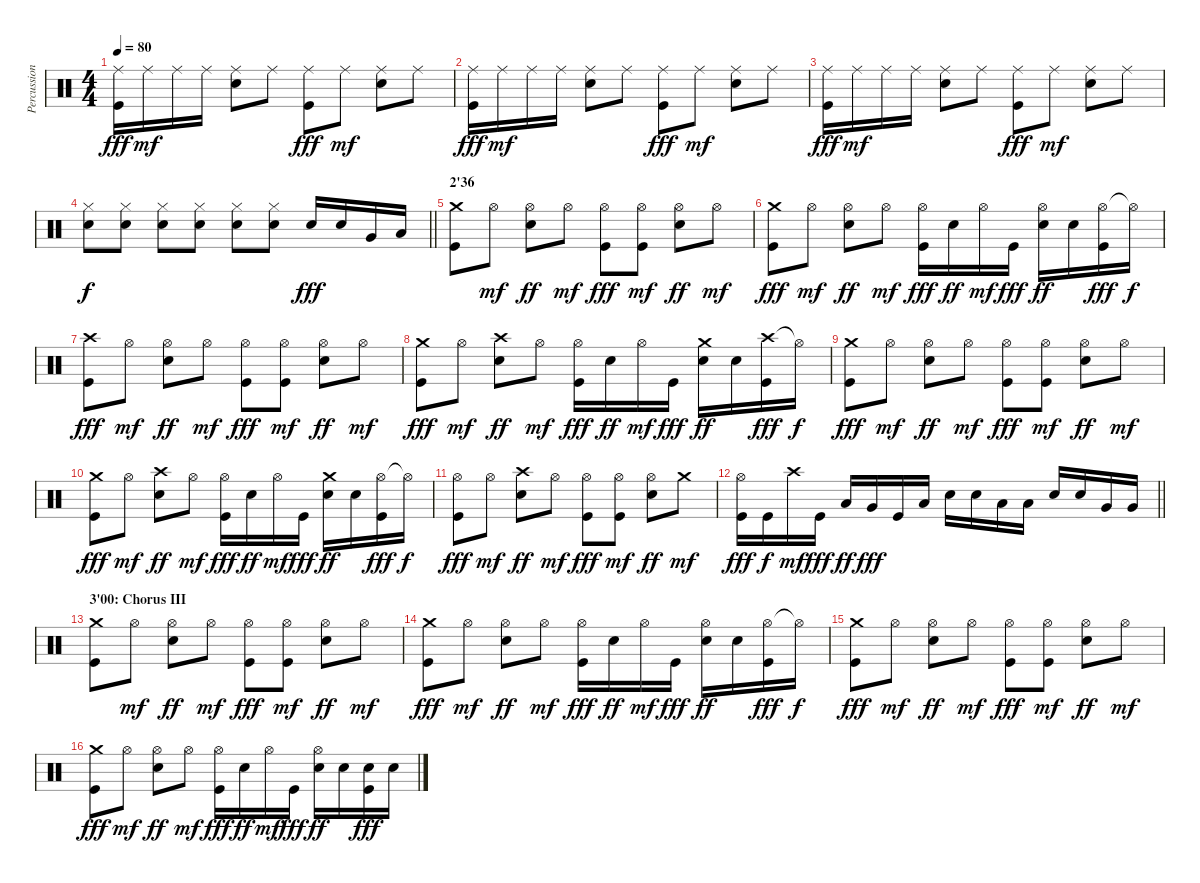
\track ("Percussions" "Percussion") {instrument percussion}
\staff {score}
\articulation defaults
\ts (4 4)
\tempo 80
\clef neutral
\ks c
("Ride (middle)" "Kick (hit)").16{dy fff} "Ride (middle)".16{dy mf} "Ride (middle)".16 "Ride (middle)".16 ("Ride (middle)" "Snare (hit) 2").8 "Ride (middle)".8 ("Ride (middle)" "Kick (hit)").8{dy fff} "Ride (middle)".8{dy mf} ("Ride (middle)" "Snare (hit) 2").8 "Ride (middle)".8 |
("Ride (middle)" "Kick (hit)").16{dy fff} "Ride (middle)".16{dy mf} "Ride (middle)".16 "Ride (middle)".16 ("Ride (middle)" "Snare (hit) 2").8 "Ride (middle)".8 ("Ride (middle)" "Kick (hit)").8{dy fff} "Ride (middle)".8{dy mf} ("Ride (middle)" "Snare (hit) 2").8 "Ride (middle)".8 |
("Ride (middle)" "Kick (hit)").16{dy fff} "Ride (middle)".16{dy mf} "Ride (middle)".16 "Ride (middle)".16 ("Ride (middle)" "Snare (hit) 2").8 "Ride (middle)".8 ("Ride (middle)" "Kick (hit)").8{dy fff} "Ride (middle)".8{dy mf} ("Ride (middle)" "Snare (hit) 2").8 "Ride (middle)".8 |
\barLineRight lightlight
("Hi-Hat (closed)" "Snare (hit) 2").8{dy f} ("Hi-Hat (closed)" "Snare (hit) 2").8 ("Hi-Hat (closed)" "Snare (hit) 2").8 ("Hi-Hat (closed)" "Snare (hit) 2").8 ("Hi-Hat (closed)" "Snare (hit) 2").8 ("Hi-Hat (closed)" "Snare (hit) 2").8 "Snare (hit) 2".16{dy fff} "Snare (hit) 2".16 "Very Low Tom (hit)".16 "Low Floor Tom (hit)".16 |
\section ("" "2'36")
("Crash medium (hit)" "Kick (hit)").8 "Hi-Hat (open)".8{dy mf} ("Hi-Hat (open)" "Snare (hit) 2").8{dy ff} "Hi-Hat (open)".8{dy mf} ("Hi-Hat (open)" "Kick (hit)").8{dy fff} ("Hi-Hat (open)" "Kick (hit)").8{dy mf} ("Hi-Hat (open)" "Snare (hit) 2").8{dy ff} "Hi-Hat (open)".8{dy mf} |
("Crash medium (hit)" "Kick (hit)").8{dy fff} "Hi-Hat (open)".8{dy mf} ("Hi-Hat (open)" "Snare (hit) 2").8{dy ff} "Hi-Hat (open)".8{dy mf} ("Hi-Hat (open)" "Kick (hit)").16{dy fff} "Snare (hit) 2".16{dy ff} "Hi-Hat (open)".16{dy mf} "Kick (hit)".16{dy fff} ("Hi-Hat (open)" "Snare (hit) 2").16{dy ff} "Snare (hit) 2".16 ("Hi-Hat (open)" "Kick (hit)").16{dy fff} "Hi-Hat (open)"{t}.16{dy f} |
("Crash high (hit)" "Kick (hit)").8{dy fff} "Hi-Hat (open)".8{dy mf} ("Hi-Hat (open)" "Snare (hit) 2").8{dy ff} "Hi-Hat (open)".8{dy mf} ("Hi-Hat (open)" "Kick (hit)").8{dy fff} ("Hi-Hat (open)" "Kick (hit)").8{dy mf} ("Hi-Hat (open)" "Snare (hit) 2").8{dy ff} "Hi-Hat (open)".8{dy mf} |
("Crash medium (hit)" "Kick (hit)").8{dy fff} "Hi-Hat (open)".8{dy mf} ("Crash high (hit)" "Snare (hit) 2").8{dy ff} "Hi-Hat (open)".8{dy mf} ("Hi-Hat (open)" "Kick (hit)").16{dy fff} "Snare (hit) 2".16{dy ff} "Hi-Hat (open)".16{dy mf} "Kick (hit)".16{dy fff} ("Crash medium (hit)" "Snare (hit) 2").16{dy ff} "Snare (hit) 2".16 ("Crash high (hit)" "Kick (hit)").16{dy fff} "Hi-Hat (open)"{t}.16{dy f} |
("Crash medium (hit)" "Kick (hit)").8{dy fff} "Hi-Hat (open)".8{dy mf} ("Hi-Hat (open)" "Snare (hit) 2").8{dy ff} "Hi-Hat (open)".8{dy mf} ("Hi-Hat (open)" "Kick (hit)").8{dy fff} ("Hi-Hat (open)" "Kick (hit)").8{dy mf} ("Hi-Hat (open)" "Snare (hit) 2").8{dy ff} "Hi-Hat (open)".8{dy mf} |
("Crash medium (hit)" "Kick (hit)").8{dy fff} "Hi-Hat (open)".8{dy mf} ("Crash high (hit)" "Snare (hit) 2").8{dy ff} "Hi-Hat (open)".8{dy mf} ("Hi-Hat (open)" "Kick (hit)").16{dy fff} "Snare (hit) 2".16{dy ff} "Hi-Hat (open)".16{dy mf} "Kick (hit)".16{dy fff} ("Crash medium (hit)" "Snare (hit) 2").16{dy ff} "Snare (hit) 2".16 ("Hi-Hat (open)" "Kick (hit)").16{dy fff} "Hi-Hat (open)"{t}.16{dy f} |
("Hi-Hat (open)" "Kick (hit)").8{dy fff} "Hi-Hat (open)".8{dy mf} ("Crash high (hit)" "Snare (hit) 2").8{dy ff} "Hi-Hat (open)".8{dy mf} ("Hi-Hat (open)" "Kick (hit)").8{dy fff} ("Hi-Hat (open)" "Kick (hit)").8{dy mf} ("Hi-Hat (open)" "Snare (hit) 2").8{dy ff} "Crash medium (hit)".8{dy mf} |
\barLineRight lightlight
("Hi-Hat (open)" "Kick (hit)").16{dy fff} "Kick (hit)".16{dy f} "Crash high (hit)".16{dy mf} "Kick (hit)".16{dy fff} "Low Tom (hit)".16{dy ff} "Very Low Tom (hit)".16{dy fff} "Kick (hit)".16 "Low Floor Tom (hit)".16 "Snare (hit) 2".16 "Snare (hit) 2".16 "Low Tom (hit)".16 "Low Tom (hit)".16 "Snare (hit) 2".16 "Snare (hit) 2".16 "Very Low Tom (hit)".16 "Very Low Tom (hit)".16 |
\section ("" "3'00: Chorus III")
("Crash medium (hit)" "Kick (hit)").8 "Hi-Hat (open)".8{dy mf} ("Hi-Hat (open)" "Snare (hit) 2").8{dy ff} "Hi-Hat (open)".8{dy mf} ("Hi-Hat (open)" "Kick (hit)").8{dy fff} ("Hi-Hat (open)" "Kick (hit)").8{dy mf} ("Hi-Hat (open)" "Snare (hit) 2").8{dy ff} "Hi-Hat (open)".8{dy mf} |
("Crash medium (hit)" "Kick (hit)").8{dy fff} "Hi-Hat (open)".8{dy mf} ("Hi-Hat (open)" "Snare (hit) 2").8{dy ff} "Hi-Hat (open)".8{dy mf} ("Hi-Hat (open)" "Kick (hit)").16{dy fff} "Snare (hit) 2".16{dy ff} "Hi-Hat (open)".16{dy mf} "Kick (hit)".16{dy fff} ("Hi-Hat (open)" "Snare (hit) 2").16{dy ff} "Snare (hit) 2".16 ("Hi-Hat (open)" "Kick (hit)").16{dy fff} "Hi-Hat (open)"{t}.16{dy f} |
("Crash medium (hit)" "Kick (hit)").8{dy fff} "Hi-Hat (open)".8{dy mf} ("Hi-Hat (open)" "Snare (hit) 2").8{dy ff} "Hi-Hat (open)".8{dy mf} ("Hi-Hat (open)" "Kick (hit)").8{dy fff} ("Hi-Hat (open)" "Kick (hit)").8{dy mf} ("Hi-Hat (open)" "Snare (hit) 2").8{dy ff} "Hi-Hat (open)".8{dy mf} |
("Crash medium (hit)" "Kick (hit)").8{dy fff} "Hi-Hat (open)".8{dy mf} ("Hi-Hat (open)" "Snare (hit) 2").8{dy ff} "Hi-Hat (open)".8{dy mf} ("Hi-Hat (open)" "Kick (hit)").16{dy fff} "Snare (hit) 2".16{dy ff} "Hi-Hat (open)".16{dy mf} "Kick (hit)".16{dy fff} ("Hi-Hat (open)" "Snare (hit) 2").16{dy ff} "Snare (hit) 2".16 ("Snare (hit) 2" "Kick (hit)").16{dy fff} "Snare (hit) 2".16
